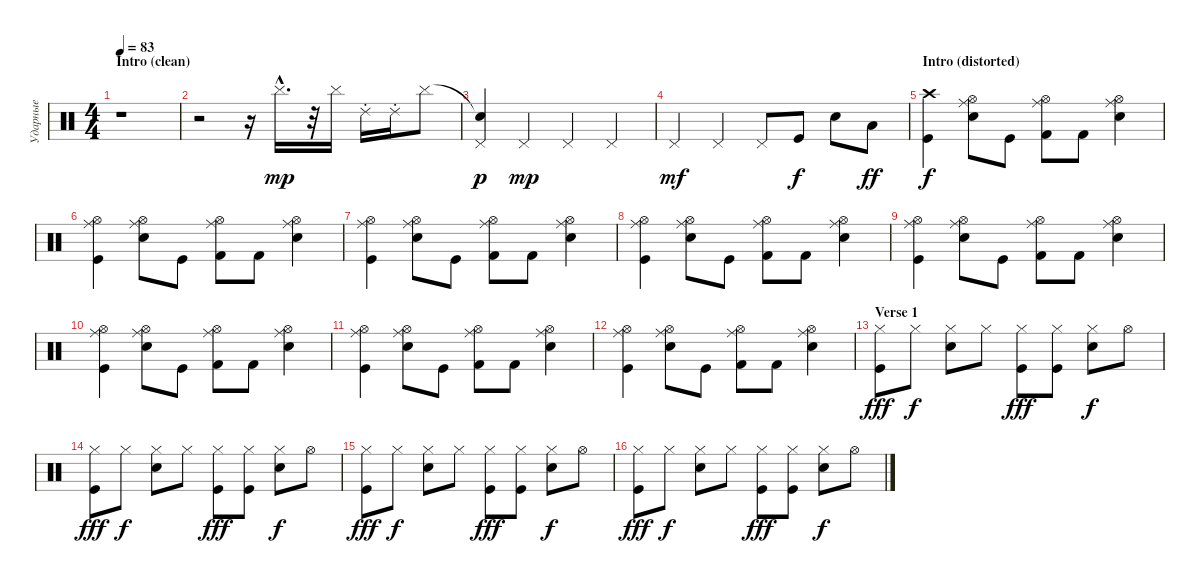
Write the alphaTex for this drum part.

\track ("Ударные" "Ударные") {instrument percussion}
\staff {score}
\articulation defaults
\ts (4 4)
\section ("" "Intro (clean)")
\tempo 83
\clef neutral
\ks c
r.1{dy mp} |
r.2 r.16 "Cymbal (hit)"{tr (30 16) hac}.16{d} r.32 "Cymbal (hit)".16 "Ride (choke) 2".16 "Ride (choke) 2".16 "Cymbal (hit)".8 |
("Snare (hit)"{t} "Pedal Hi-Hat (hit)").4{dy p} "Pedal Hi-Hat (hit)".4{dy mp} "Pedal Hi-Hat (hit)".4 "Pedal Hi-Hat (hit)".4 |
"Pedal Hi-Hat (hit)".4{dy mf} "Pedal Hi-Hat (hit)".4 "Pedal Hi-Hat (hit)".8 "Kick (hit)".8{dy f} "Electric Snare (hit)".8 "Low Tom (hit)".8{dy ff} |
\section ("" "Intro (distorted)")
("Kick (hit)" "Crash high (hit)").4{dy f} ("Electric Snare (hit)" "Hi-Hat (open)" "Ride (middle)").8 "Kick (hit)".8 ("Kick (hit) 2" "Hi-Hat (open)" "Ride (middle)").8 "Kick (hit) 2".8 ("Electric Snare (hit)" "Hi-Hat (open)" "Ride (middle)").4 |
("Kick (hit)" "Hi-Hat (open)" "Ride (middle)").4 ("Electric Snare (hit)" "Hi-Hat (open)" "Ride (middle)").8 "Kick (hit)".8 ("Kick (hit) 2" "Hi-Hat (open)" "Ride (middle)").8 "Kick (hit) 2".8 ("Electric Snare (hit)" "Hi-Hat (open)" "Ride (middle)").4 |
("Kick (hit)" "Hi-Hat (open)" "Ride (middle)").4 ("Electric Snare (hit)" "Hi-Hat (open)" "Ride (middle)").8 "Kick (hit)".8 ("Kick (hit) 2" "Hi-Hat (open)" "Ride (middle)").8 "Kick (hit) 2".8 ("Electric Snare (hit)" "Hi-Hat (open)" "Ride (middle)").4 |
("Kick (hit)" "Hi-Hat (open)" "Ride (middle)").4 ("Electric Snare (hit)" "Hi-Hat (open)" "Ride (middle)").8 "Kick (hit)".8 ("Kick (hit) 2" "Hi-Hat (open)" "Ride (middle)").8 "Kick (hit) 2".8 ("Electric Snare (hit)" "Hi-Hat (open)" "Ride (middle)").4 |
("Kick (hit)" "Hi-Hat (open)" "Ride (middle)").4 ("Electric Snare (hit)" "Hi-Hat (open)" "Ride (middle)").8 "Kick (hit)".8 ("Kick (hit) 2" "Hi-Hat (open)" "Ride (middle)").8 "Kick (hit) 2".8 ("Electric Snare (hit)" "Hi-Hat (open)" "Ride (middle)").4 |
("Kick (hit)" "Hi-Hat (open)" "Ride (middle)").4 ("Electric Snare (hit)" "Hi-Hat (open)" "Ride (middle)").8 "Kick (hit)".8 ("Kick (hit) 2" "Hi-Hat (open)" "Ride (middle)").8 "Kick (hit) 2".8 ("Electric Snare (hit)" "Hi-Hat (open)" "Ride (middle)").4 |
("Kick (hit)" "Hi-Hat (open)" "Ride (middle)").4 ("Electric Snare (hit)" "Hi-Hat (open)" "Ride (middle)").8 "Kick (hit)".8 ("Kick (hit) 2" "Hi-Hat (open)" "Ride (middle)").8 "Kick (hit) 2".8 ("Electric Snare (hit)" "Hi-Hat (open)" "Ride (middle)").4 |
("Kick (hit)" "Hi-Hat (open)" "Ride (middle)").4 ("Electric Snare (hit)" "Hi-Hat (open)" "Ride (middle)").8 "Kick (hit)".8 ("Kick (hit) 2" "Hi-Hat (open)" "Ride (middle)").8 "Kick (hit) 2".8 ("Electric Snare (hit)" "Hi-Hat (open)" "Ride (middle)").4 |
\section ("" "Verse 1")
("Kick (hit)" "Hi-Hat (closed)").8{dy fff} "Hi-Hat (closed)".8{dy f} ("Electric Snare (hit)" "Hi-Hat (closed)").8 "Hi-Hat (closed)".8 ("Kick (hit)" "Hi-Hat (closed)").8{dy fff} ("Kick (hit)" "Hi-Hat (closed)").8 ("Electric Snare (hit)" "Hi-Hat (closed)").8{dy f} "Hi-Hat (open)".8 |
("Kick (hit)" "Hi-Hat (closed)").8{dy fff} "Hi-Hat (closed)".8{dy f} ("Electric Snare (hit)" "Hi-Hat (closed)").8 "Hi-Hat (closed)".8 ("Kick (hit)" "Hi-Hat (closed)").8{dy fff} ("Kick (hit)" "Hi-Hat (closed)").8 ("Electric Snare (hit)" "Hi-Hat (closed)").8{dy f} "Hi-Hat (open)".8 |
("Kick (hit)" "Hi-Hat (closed)").8{dy fff} "Hi-Hat (closed)".8{dy f} ("Electric Snare (hit)" "Hi-Hat (closed)").8 "Hi-Hat (closed)".8 ("Kick (hit)" "Hi-Hat (closed)").8{dy fff} ("Kick (hit)" "Hi-Hat (closed)").8 ("Electric Snare (hit)" "Hi-Hat (closed)").8{dy f} "Hi-Hat (open)".8 |
("Kick (hit)" "Hi-Hat (closed)").8{dy fff} "Hi-Hat (closed)".8{dy f} ("Electric Snare (hit)" "Hi-Hat (closed)").8 "Hi-Hat (closed)".8 ("Kick (hit)" "Hi-Hat (closed)").8{dy fff} ("Kick (hit)" "Hi-Hat (closed)").8 ("Electric Snare (hit)" "Hi-Hat (closed)").8{dy f} "Hi-Hat (open)".8
